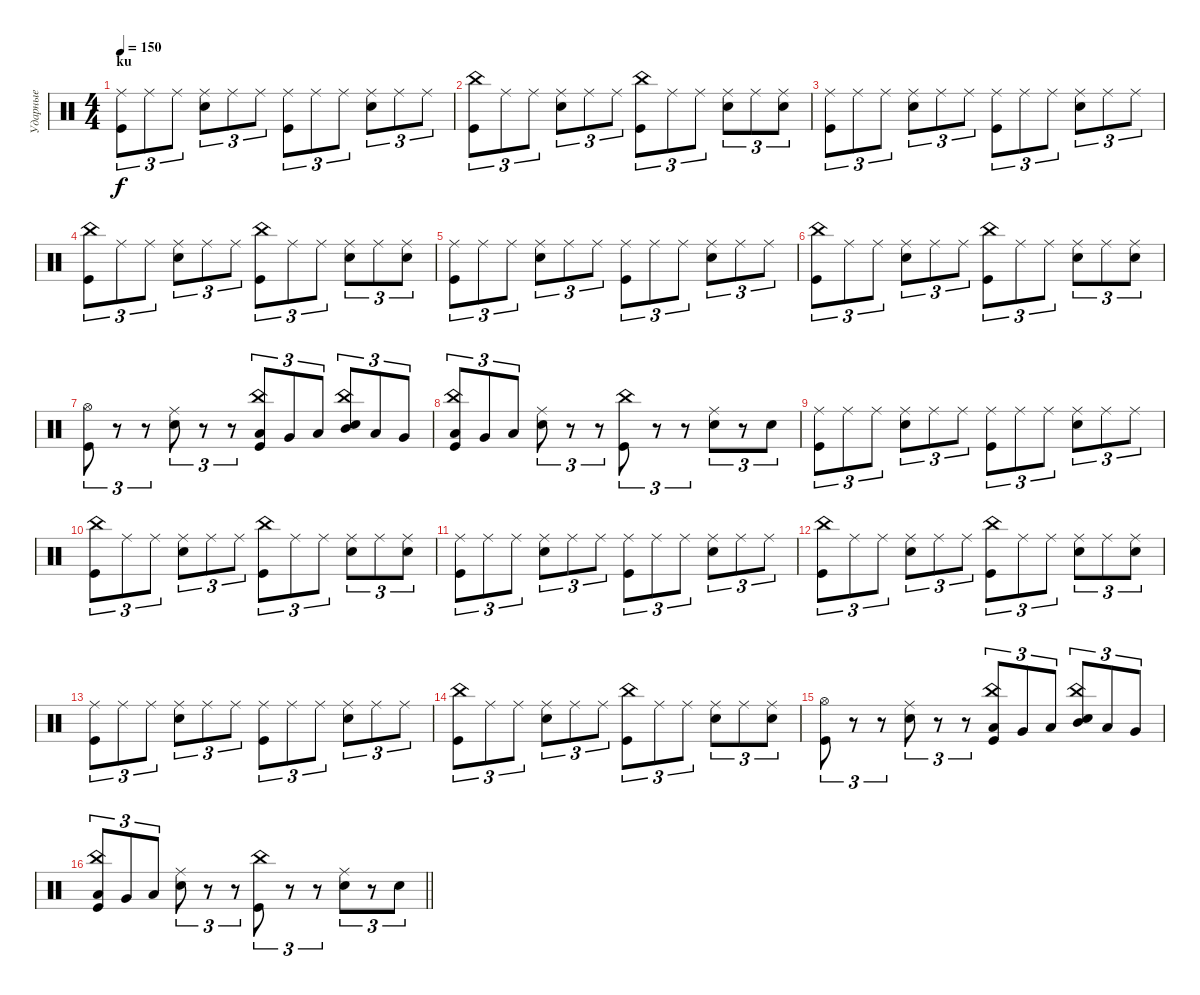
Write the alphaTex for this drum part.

\track ("Ударные" "Ударные") {instrument percussion}
\staff {score}
\articulation defaults
\ts (4 4)
\section ("" "ku")
\tempo 150
\clef neutral
\ks c
("Ride (middle)" "Kick (hit)").8{tu (3 2) dy f} "Ride (middle)".8{tu (3 2)} "Ride (middle)".8{tu (3 2)} ("Ride (middle)" "Electric Snare (hit)").8{tu (3 2)} "Ride (middle)".8{tu (3 2)} "Ride (middle)".8{tu (3 2)} ("Ride (middle)" "Kick (hit)").8{tu (3 2)} "Ride (middle)".8{tu (3 2)} "Ride (middle)".8{tu (3 2)} ("Ride (middle)" "Electric Snare (hit)").8{tu (3 2)} "Ride (middle)".8{tu (3 2)} "Ride (middle)".8{tu (3 2)} |
("China (hit)" "Kick (hit)").8{tu (3 2)} "Ride (middle)".8{tu (3 2)} "Ride (middle)".8{tu (3 2)} ("Ride (middle)" "Electric Snare (hit)").8{tu (3 2)} "Ride (middle)".8{tu (3 2)} "Ride (middle)".8{tu (3 2)} ("China (hit)" "Kick (hit)").8{tu (3 2)} "Ride (middle)".8{tu (3 2)} "Ride (middle)".8{tu (3 2)} ("Ride (middle)" "Electric Snare (hit)").8{tu (3 2)} "Ride (middle)".8{tu (3 2)} ("Ride (middle)" "Electric Snare (hit)").8{tu (3 2)} |
("Ride (middle)" "Kick (hit)").8{tu (3 2)} "Ride (middle)".8{tu (3 2)} "Ride (middle)".8{tu (3 2)} ("Ride (middle)" "Electric Snare (hit)").8{tu (3 2)} "Ride (middle)".8{tu (3 2)} "Ride (middle)".8{tu (3 2)} ("Ride (middle)" "Kick (hit)").8{tu (3 2)} "Ride (middle)".8{tu (3 2)} "Ride (middle)".8{tu (3 2)} ("Ride (middle)" "Electric Snare (hit)").8{tu (3 2)} "Ride (middle)".8{tu (3 2)} "Ride (middle)".8{tu (3 2)} |
("China (hit)" "Kick (hit)").8{tu (3 2)} "Ride (middle)".8{tu (3 2)} "Ride (middle)".8{tu (3 2)} ("Ride (middle)" "Electric Snare (hit)").8{tu (3 2)} "Ride (middle)".8{tu (3 2)} "Ride (middle)".8{tu (3 2)} ("China (hit)" "Kick (hit)").8{tu (3 2)} "Ride (middle)".8{tu (3 2)} "Ride (middle)".8{tu (3 2)} ("Ride (middle)" "Electric Snare (hit)").8{tu (3 2)} "Ride (middle)".8{tu (3 2)} ("Ride (middle)" "Electric Snare (hit)").8{tu (3 2)} |
("Ride (middle)" "Kick (hit)").8{tu (3 2)} "Ride (middle)".8{tu (3 2)} "Ride (middle)".8{tu (3 2)} ("Ride (middle)" "Electric Snare (hit)").8{tu (3 2)} "Ride (middle)".8{tu (3 2)} "Ride (middle)".8{tu (3 2)} ("Ride (middle)" "Kick (hit)").8{tu (3 2)} "Ride (middle)".8{tu (3 2)} "Ride (middle)".8{tu (3 2)} ("Ride (middle)" "Electric Snare (hit)").8{tu (3 2)} "Ride (middle)".8{tu (3 2)} "Ride (middle)".8{tu (3 2)} |
("China (hit)" "Kick (hit)").8{tu (3 2)} "Ride (middle)".8{tu (3 2)} "Ride (middle)".8{tu (3 2)} ("Ride (middle)" "Electric Snare (hit)").8{tu (3 2)} "Ride (middle)".8{tu (3 2)} "Ride (middle)".8{tu (3 2)} ("China (hit)" "Kick (hit)").8{tu (3 2)} "Ride (middle)".8{tu (3 2)} "Ride (middle)".8{tu (3 2)} ("Ride (middle)" "Electric Snare (hit)").8{tu (3 2)} "Ride (middle)".8{tu (3 2)} ("Ride (middle)" "Electric Snare (hit)").8{tu (3 2)} |
("Hi-Hat (open)" "Kick (hit)").8{tu (3 2)} r.8{tu (3 2)} r.8{tu (3 2)} ("Ride (middle)" "Electric Snare (hit)").8{tu (3 2)} r.8{tu (3 2)} r.8{tu (3 2)} ("China (hit)" "Low Floor Tom (hit)" "Kick (hit)").8{tu (3 2)} "Very Low Tom (hit)".8{tu (3 2)} "Low Tom (hit)".8{tu (3 2)} ("China (hit)" "Mid Tom (hit)" "Electric Snare (hit)").8{tu (3 2)} "Low Tom (hit)".8{tu (3 2)} "Very Low Tom (hit)".8{tu (3 2)} |
("China (hit)" "Low Floor Tom (hit)" "Kick (hit)").8{tu (3 2)} "Very Low Tom (hit)".8{tu (3 2)} "Low Floor Tom (hit)".8{tu (3 2)} ("Ride (middle)" "Electric Snare (hit)").8{tu (3 2)} r.8{tu (3 2)} r.8{tu (3 2)} ("China (hit)" "Kick (hit)").8{tu (3 2)} r.8{tu (3 2)} r.8{tu (3 2)} ("Ride (middle)" "Electric Snare (hit)").8{tu (3 2)} r.8{tu (3 2)} "Electric Snare (hit)".8{tu (3 2)} |
("Ride (middle)" "Kick (hit)").8{tu (3 2)} "Ride (middle)".8{tu (3 2)} "Ride (middle)".8{tu (3 2)} ("Ride (middle)" "Electric Snare (hit)").8{tu (3 2)} "Ride (middle)".8{tu (3 2)} "Ride (middle)".8{tu (3 2)} ("Ride (middle)" "Kick (hit)").8{tu (3 2)} "Ride (middle)".8{tu (3 2)} "Ride (middle)".8{tu (3 2)} ("Ride (middle)" "Electric Snare (hit)").8{tu (3 2)} "Ride (middle)".8{tu (3 2)} "Ride (middle)".8{tu (3 2)} |
("China (hit)" "Kick (hit)").8{tu (3 2)} "Ride (middle)".8{tu (3 2)} "Ride (middle)".8{tu (3 2)} ("Ride (middle)" "Electric Snare (hit)").8{tu (3 2)} "Ride (middle)".8{tu (3 2)} "Ride (middle)".8{tu (3 2)} ("China (hit)" "Kick (hit)").8{tu (3 2)} "Ride (middle)".8{tu (3 2)} "Ride (middle)".8{tu (3 2)} ("Ride (middle)" "Electric Snare (hit)").8{tu (3 2)} "Ride (middle)".8{tu (3 2)} ("Ride (middle)" "Electric Snare (hit)").8{tu (3 2)} |
("Ride (middle)" "Kick (hit)").8{tu (3 2)} "Ride (middle)".8{tu (3 2)} "Ride (middle)".8{tu (3 2)} ("Ride (middle)" "Electric Snare (hit)").8{tu (3 2)} "Ride (middle)".8{tu (3 2)} "Ride (middle)".8{tu (3 2)} ("Ride (middle)" "Kick (hit)").8{tu (3 2)} "Ride (middle)".8{tu (3 2)} "Ride (middle)".8{tu (3 2)} ("Ride (middle)" "Electric Snare (hit)").8{tu (3 2)} "Ride (middle)".8{tu (3 2)} "Ride (middle)".8{tu (3 2)} |
("China (hit)" "Kick (hit)").8{tu (3 2)} "Ride (middle)".8{tu (3 2)} "Ride (middle)".8{tu (3 2)} ("Ride (middle)" "Electric Snare (hit)").8{tu (3 2)} "Ride (middle)".8{tu (3 2)} "Ride (middle)".8{tu (3 2)} ("China (hit)" "Kick (hit)").8{tu (3 2)} "Ride (middle)".8{tu (3 2)} "Ride (middle)".8{tu (3 2)} ("Ride (middle)" "Electric Snare (hit)").8{tu (3 2)} "Ride (middle)".8{tu (3 2)} ("Ride (middle)" "Electric Snare (hit)").8{tu (3 2)} |
("Ride (middle)" "Kick (hit)").8{tu (3 2)} "Ride (middle)".8{tu (3 2)} "Ride (middle)".8{tu (3 2)} ("Ride (middle)" "Electric Snare (hit)").8{tu (3 2)} "Ride (middle)".8{tu (3 2)} "Ride (middle)".8{tu (3 2)} ("Ride (middle)" "Kick (hit)").8{tu (3 2)} "Ride (middle)".8{tu (3 2)} "Ride (middle)".8{tu (3 2)} ("Ride (middle)" "Electric Snare (hit)").8{tu (3 2)} "Ride (middle)".8{tu (3 2)} "Ride (middle)".8{tu (3 2)} |
("China (hit)" "Kick (hit)").8{tu (3 2)} "Ride (middle)".8{tu (3 2)} "Ride (middle)".8{tu (3 2)} ("Ride (middle)" "Electric Snare (hit)").8{tu (3 2)} "Ride (middle)".8{tu (3 2)} "Ride (middle)".8{tu (3 2)} ("China (hit)" "Kick (hit)").8{tu (3 2)} "Ride (middle)".8{tu (3 2)} "Ride (middle)".8{tu (3 2)} ("Ride (middle)" "Electric Snare (hit)").8{tu (3 2)} "Ride (middle)".8{tu (3 2)} ("Ride (middle)" "Electric Snare (hit)").8{tu (3 2)} |
("Hi-Hat (open)" "Kick (hit)").8{tu (3 2)} r.8{tu (3 2)} r.8{tu (3 2)} ("Ride (middle)" "Electric Snare (hit)").8{tu (3 2)} r.8{tu (3 2)} r.8{tu (3 2)} ("China (hit)" "Low Floor Tom (hit)" "Kick (hit)").8{tu (3 2)} "Very Low Tom (hit)".8{tu (3 2)} "Low Tom (hit)".8{tu (3 2)} ("China (hit)" "Mid Tom (hit)" "Electric Snare (hit)").8{tu (3 2)} "Low Tom (hit)".8{tu (3 2)} "Very Low Tom (hit)".8{tu (3 2)} |
\barLineRight lightlight
("China (hit)" "Low Floor Tom (hit)" "Kick (hit)").8{tu (3 2)} "Very Low Tom (hit)".8{tu (3 2)} "Low Floor Tom (hit)".8{tu (3 2)} ("Ride (middle)" "Electric Snare (hit)").8{tu (3 2)} r.8{tu (3 2)} r.8{tu (3 2)} ("China (hit)" "Kick (hit)").8{tu (3 2)} r.8{tu (3 2)} r.8{tu (3 2)} ("Ride (middle)" "Electric Snare (hit)").8{tu (3 2)} r.8{tu (3 2)} "Electric Snare (hit)".8{tu (3 2)}
